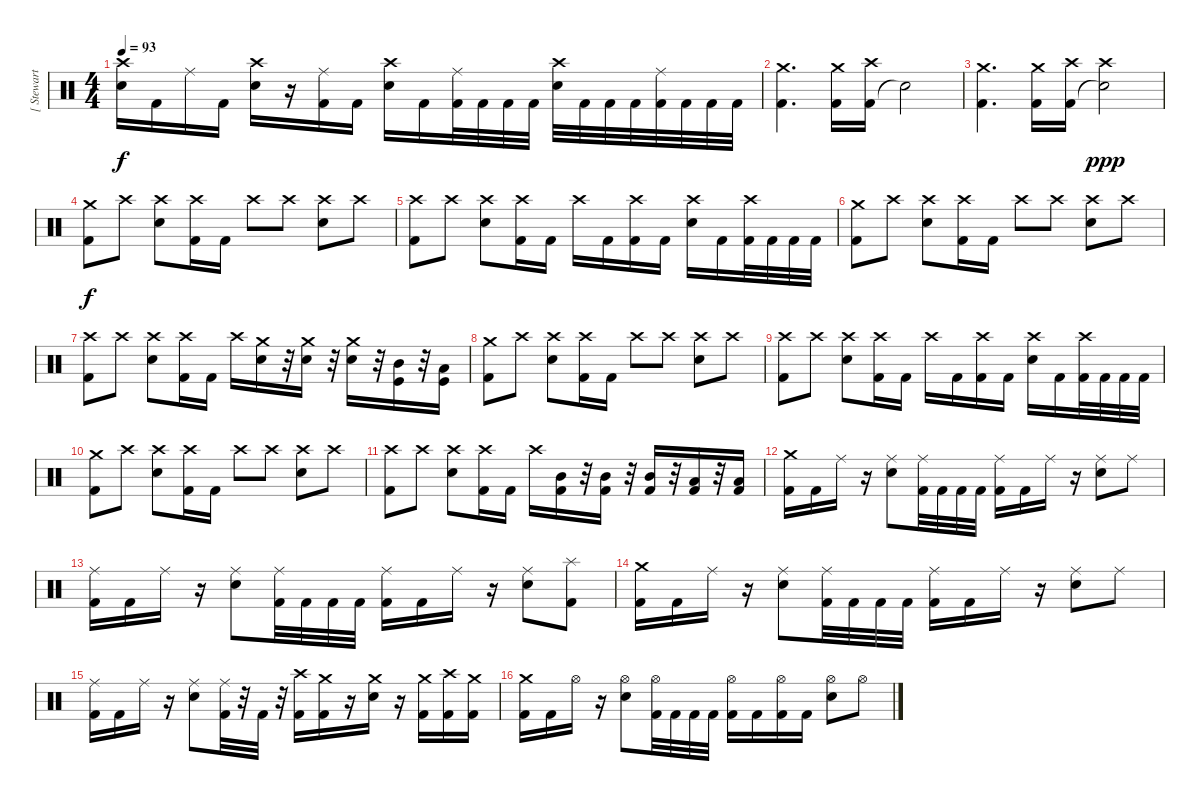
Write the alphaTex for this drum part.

\track ("[ Stewart ]" "[ Stewart ") {instrument percussion}
\staff {score}
\articulation defaults
\ts (4 4)
\tempo 93
\clef neutral
\ks c
("Electric Snare (hit)" "Crash high (hit)").16{dy f} "Kick (hit) 2".16 "Ride (middle)".16 "Kick (hit) 2".16 ("Electric Snare (hit)" "Crash high (hit)").16 r.16 ("Kick (hit) 2" "Ride (middle)").16 "Kick (hit) 2".16 ("Electric Snare (hit)" "Crash high (hit)").16 "Kick (hit) 2".16 ("Kick (hit) 2" "Ride (middle)").32 "Kick (hit) 2".32 "Kick (hit) 2".32 "Kick (hit) 2".32 ("Electric Snare (hit)" "Crash high (hit)").32 "Kick (hit) 2".32 "Kick (hit) 2".32 "Kick (hit) 2".32 ("Kick (hit) 2" "Ride (middle)").32 "Kick (hit) 2".32 "Kick (hit) 2".32 "Kick (hit) 2".32 |
("Kick (hit) 2" "Crash medium (hit)").4{d} ("Kick (hit) 2" "Crash medium (hit)").16 ("Kick (hit) 2" "Crash high (hit)").16 "Snare (hit)"{t}.2 |
("Kick (hit) 2" "Crash medium (hit)").4{d} ("Kick (hit) 2" "Crash medium (hit)").16 ("Kick (hit) 2" "Crash high (hit)").16 ("Snare (hit)"{t} "Crash high (hit)").2{dy ppp} |
("Kick (hit) 2" "Crash medium (hit)").8{dy f} "Crash high (hit)".8 ("Electric Snare (hit)" "Crash high (hit)").8 ("Kick (hit) 2" "Crash high (hit)").16 "Kick (hit) 2".16 "Crash high (hit)".8 "Crash high (hit)".8 ("Electric Snare (hit)" "Crash high (hit)").8 "Crash high (hit)".8 |
("Kick (hit) 2" "Crash high (hit)").8 "Crash high (hit)".8 ("Electric Snare (hit)" "Crash high (hit)").8 ("Kick (hit) 2" "Crash high (hit)").16 "Kick (hit) 2".16 "Crash high (hit)".16 "Kick (hit) 2".16 ("Kick (hit) 2" "Crash high (hit)").16 "Kick (hit) 2".16 ("Electric Snare (hit)" "Crash high (hit)").16 "Kick (hit) 2".16 ("Kick (hit) 2" "Crash high (hit)").32 "Kick (hit) 2".32 "Kick (hit) 2".32 "Kick (hit) 2".32 |
("Kick (hit) 2" "Crash medium (hit)").8 "Crash high (hit)".8 ("Electric Snare (hit)" "Crash high (hit)").8 ("Kick (hit) 2" "Crash high (hit)").16 "Kick (hit) 2".16 "Crash high (hit)".8 "Crash high (hit)".8 ("Electric Snare (hit)" "Crash high (hit)").8 "Crash high (hit)".8 |
("Kick (hit) 2" "Crash high (hit)").8 "Crash high (hit)".8 ("Electric Snare (hit)" "Crash high (hit)").8 ("Kick (hit) 2" "Crash high (hit)").16 "Kick (hit) 2".16 "Crash high (hit)".16 ("Electric Snare (hit)" "Crash medium (hit)").16 r.32 ("Electric Snare (hit)" "Crash medium (hit)").16 r.32 ("Electric Snare (hit)" "Crash medium (hit)").16 r.32 ("Mid Tom (hit)" "Kick (hit)").16 r.32 ("Low Tom (hit)" "Kick (hit)").16 |
("Kick (hit) 2" "Crash medium (hit)").8 "Crash high (hit)".8 ("Electric Snare (hit)" "Crash high (hit)").8 ("Kick (hit) 2" "Crash high (hit)").16 "Kick (hit) 2".16 "Crash high (hit)".8 "Crash high (hit)".8 ("Electric Snare (hit)" "Crash high (hit)").8 "Crash high (hit)".8 |
("Kick (hit) 2" "Crash high (hit)").8 "Crash high (hit)".8 ("Electric Snare (hit)" "Crash high (hit)").8 ("Kick (hit) 2" "Crash high (hit)").16 "Kick (hit) 2".16 "Crash high (hit)".16 "Kick (hit) 2".16 ("Kick (hit) 2" "Crash high (hit)").16 "Kick (hit) 2".16 ("Electric Snare (hit)" "Crash high (hit)").16 "Kick (hit) 2".16 ("Kick (hit) 2" "Crash high (hit)").32 "Kick (hit) 2".32 "Kick (hit) 2".32 "Kick (hit) 2".32 |
("Kick (hit) 2" "Crash medium (hit)").8 "Crash high (hit)".8 ("Electric Snare (hit)" "Crash high (hit)").8 ("Kick (hit) 2" "Crash high (hit)").16 "Kick (hit) 2".16 "Crash high (hit)".8 "Crash high (hit)".8 ("Electric Snare (hit)" "Crash high (hit)").8 "Crash high (hit)".8 |
("Kick (hit) 2" "Crash high (hit)").8 "Crash high (hit)".8 ("Electric Snare (hit)" "Crash high (hit)").8 ("Kick (hit) 2" "Crash high (hit)").16 "Kick (hit) 2".16 "Crash high (hit)".16 ("Mid Tom (hit)" "Kick (hit) 2").16 r.32 ("Mid Tom (hit)" "Kick (hit) 2").16 r.32 ("Mid Tom (hit)" "Kick (hit) 2").16 r.32 ("Low Tom (hit)" "Kick (hit) 2").16 r.32 ("Low Tom (hit)" "Kick (hit) 2").16 |
("Kick (hit) 2" "Crash medium (hit)").16 "Kick (hit) 2".16 "Ride (middle)".16 r.16 ("Electric Snare (hit)" "Ride (middle)").8 ("Kick (hit) 2" "Ride (middle)").32 "Kick (hit) 2".32 "Kick (hit) 2".32 "Kick (hit) 2".32 ("Kick (hit) 2" "Ride (middle)").16 "Kick (hit) 2".16 "Ride (middle)".16 r.16 ("Electric Snare (hit)" "Ride (middle)").8 "Ride (middle)".8 |
("Kick (hit) 2" "Ride (middle)").16 "Kick (hit) 2".16 "Ride (middle)".16 r.16 ("Electric Snare (hit)" "Ride (middle)").8 ("Kick (hit) 2" "Ride (middle)").32 "Kick (hit) 2".32 "Kick (hit) 2".32 "Kick (hit) 2".32 ("Kick (hit) 2" "Ride (middle)").16 "Kick (hit) 2".16 "Ride (middle)".16 r.16 ("Electric Snare (hit)" "Ride (middle)").8 ("Kick (hit) 2" "Splash (hit)").8 |
("Kick (hit) 2" "Crash medium (hit)").16 "Kick (hit) 2".16 "Ride (middle)".16 r.16 ("Electric Snare (hit)" "Ride (middle)").8 ("Kick (hit) 2" "Ride (middle)").32 "Kick (hit) 2".32 "Kick (hit) 2".32 "Kick (hit) 2".32 ("Kick (hit) 2" "Ride (middle)").16 "Kick (hit) 2".16 "Ride (middle)".16 r.16 ("Electric Snare (hit)" "Ride (middle)").8 "Ride (middle)".8 |
("Kick (hit) 2" "Ride (middle)").16 "Kick (hit) 2".16 "Ride (middle)".16 r.16 ("Electric Snare (hit)" "Ride (middle)").8 ("Kick (hit) 2" "Ride (middle)").32 r.32 "Kick (hit) 2".32 r.32 ("Kick (hit) 2" "Crash high (hit)").16 ("Kick (hit) 2" "Crash medium (hit)").16 r.16 ("Electric Snare (hit)" "Crash medium (hit)").16 r.16 ("Kick (hit) 2" "Crash medium (hit)").16 ("Kick (hit) 2" "Crash high (hit)").16 ("Kick (hit) 2" "Crash medium (hit)").16 |
("Kick (hit) 2" "Crash medium (hit)").16 "Kick (hit) 2".16 "Hi-Hat (open)".16 r.16 ("Electric Snare (hit)" "Hi-Hat (open)").8 ("Kick (hit) 2" "Hi-Hat (open)").32 "Kick (hit) 2".32 "Kick (hit) 2".32 "Kick (hit) 2".32 ("Kick (hit) 2" "Hi-Hat (open)").16 "Kick (hit) 2".16 ("Kick (hit) 2" "Hi-Hat (open)").16 "Kick (hit) 2".16 ("Electric Snare (hit)" "Hi-Hat (open)").8 "Hi-Hat (open)".8
